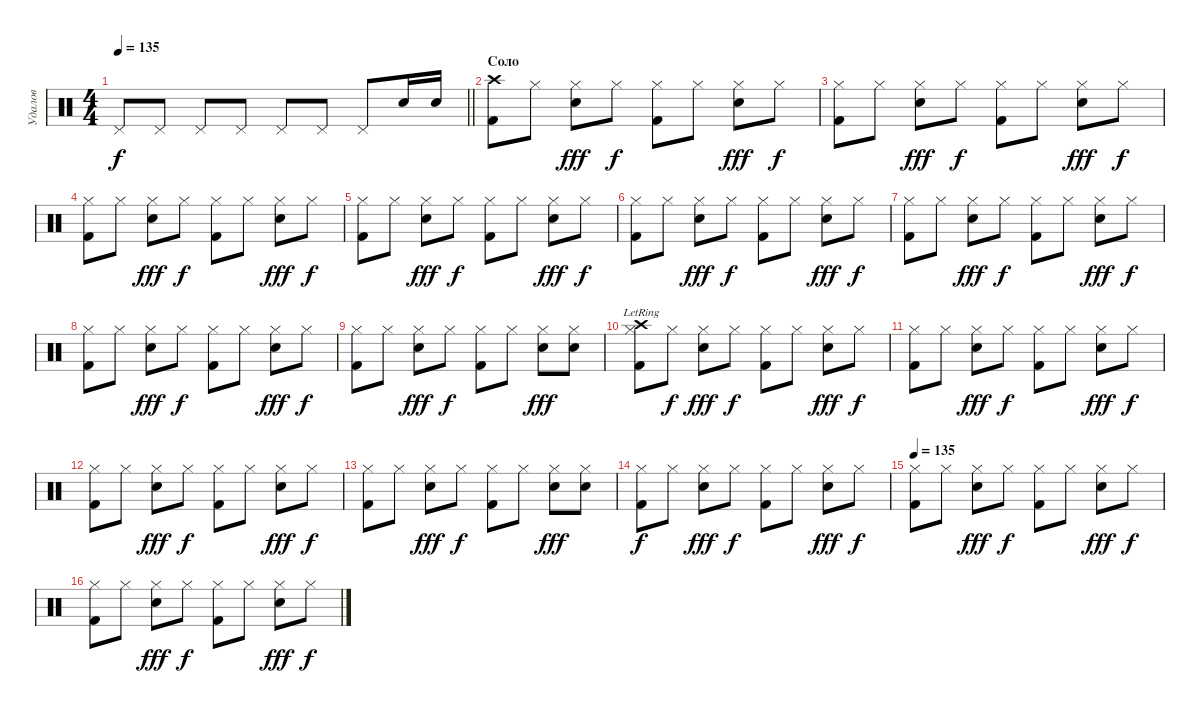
\track ("Удалов" "Удалов") {instrument percussion}
\staff {score}
\articulation defaults
\ts (4 4)
\tempo 135
\clef neutral
\barLineRight lightlight
\ks c "Pedal Hi-Hat (hit)".8{dy f} "Pedal Hi-Hat (hit)".8 "Pedal Hi-Hat (hit)".8 "Pedal Hi-Hat (hit)".8 "Pedal Hi-Hat (hit)".8 "Pedal Hi-Hat (hit)".8 "Pedal Hi-Hat (hit)".8 "Snare (hit) 2".16 "Snare (hit) 2".16
|
\section ("" "Соло")
("Crash high (hit)" "Kick (hit) 2").8 "Hi-Hat (closed)".8 ("Hi-Hat (closed)" "Snare (hit) 2").8{dy fff} "Hi-Hat (closed)".8{dy f} ("Hi-Hat (closed)" "Kick (hit) 2").8 "Hi-Hat (closed)".8 ("Hi-Hat (closed)" "Snare (hit) 2").8{dy fff} "Hi-Hat (closed)".8{dy f} |
("Hi-Hat (closed)" "Kick (hit) 2").8 "Hi-Hat (closed)".8 ("Hi-Hat (closed)" "Snare (hit) 2").8{dy fff} "Hi-Hat (closed)".8{dy f} ("Hi-Hat (closed)" "Kick (hit) 2").8 "Hi-Hat (closed)".8 ("Hi-Hat (closed)" "Snare (hit) 2").8{dy fff} "Hi-Hat (closed)".8{dy f} |
("Hi-Hat (closed)" "Kick (hit) 2").8 "Hi-Hat (closed)".8 ("Hi-Hat (closed)" "Snare (hit) 2").8{dy fff} "Hi-Hat (closed)".8{dy f} ("Hi-Hat (closed)" "Kick (hit) 2").8 "Hi-Hat (closed)".8 ("Hi-Hat (closed)" "Snare (hit) 2").8{dy fff} "Hi-Hat (closed)".8{dy f} |
("Hi-Hat (closed)" "Kick (hit) 2").8 "Hi-Hat (closed)".8 ("Hi-Hat (closed)" "Snare (hit) 2").8{dy fff} "Hi-Hat (closed)".8{dy f} ("Hi-Hat (closed)" "Kick (hit) 2").8 "Hi-Hat (closed)".8 ("Hi-Hat (closed)" "Snare (hit) 2").8{dy fff} "Hi-Hat (closed)".8{dy f} |
("Hi-Hat (closed)" "Kick (hit) 2").8 "Hi-Hat (closed)".8 ("Hi-Hat (closed)" "Snare (hit) 2").8{dy fff} "Hi-Hat (closed)".8{dy f} ("Hi-Hat (closed)" "Kick (hit) 2").8 "Hi-Hat (closed)".8 ("Hi-Hat (closed)" "Snare (hit) 2").8{dy fff} "Hi-Hat (closed)".8{dy f} |
("Hi-Hat (closed)" "Kick (hit) 2").8 "Hi-Hat (closed)".8 ("Hi-Hat (closed)" "Snare (hit) 2").8{dy fff} "Hi-Hat (closed)".8{dy f} ("Hi-Hat (closed)" "Kick (hit) 2").8 "Hi-Hat (closed)".8 ("Hi-Hat (closed)" "Snare (hit) 2").8{dy fff} "Hi-Hat (closed)".8{dy f} |
("Hi-Hat (closed)" "Kick (hit) 2").8 "Hi-Hat (closed)".8 ("Hi-Hat (closed)" "Snare (hit) 2").8{dy fff} "Hi-Hat (closed)".8{dy f} ("Hi-Hat (closed)" "Kick (hit) 2").8 "Hi-Hat (closed)".8 ("Hi-Hat (closed)" "Snare (hit) 2").8{dy fff} "Hi-Hat (closed)".8{dy f} |
("Hi-Hat (closed)" "Kick (hit) 2").8 "Hi-Hat (closed)".8 ("Hi-Hat (closed)" "Snare (hit) 2").8{dy fff} "Hi-Hat (closed)".8{dy f} ("Hi-Hat (closed)" "Kick (hit) 2").8 "Hi-Hat (closed)".8 ("Hi-Hat (closed)" "Snare (hit) 2").8{dy fff} ("Hi-Hat (closed)" "Snare (hit) 2").8 |
("Hi-Hat (closed)" "Kick (hit) 2" "Crash high (hit)"{lr}).8 "Hi-Hat (closed)".8{dy f} ("Hi-Hat (closed)" "Snare (hit) 2").8{dy fff} "Hi-Hat (closed)".8{dy f} ("Hi-Hat (closed)" "Kick (hit) 2").8 "Hi-Hat (closed)".8 ("Hi-Hat (closed)" "Snare (hit) 2").8{dy fff} "Hi-Hat (closed)".8{dy f} |
("Hi-Hat (closed)" "Kick (hit) 2").8 "Hi-Hat (closed)".8 ("Hi-Hat (closed)" "Snare (hit) 2").8{dy fff} "Hi-Hat (closed)".8{dy f} ("Hi-Hat (closed)" "Kick (hit) 2").8 "Hi-Hat (closed)".8 ("Hi-Hat (closed)" "Snare (hit) 2").8{dy fff} "Hi-Hat (closed)".8{dy f} |
("Hi-Hat (closed)" "Kick (hit) 2").8 "Hi-Hat (closed)".8 ("Hi-Hat (closed)" "Snare (hit) 2").8{dy fff} "Hi-Hat (closed)".8{dy f} ("Hi-Hat (closed)" "Kick (hit) 2").8 "Hi-Hat (closed)".8 ("Hi-Hat (closed)" "Snare (hit) 2").8{dy fff} "Hi-Hat (closed)".8{dy f} |
("Hi-Hat (closed)" "Kick (hit) 2").8 "Hi-Hat (closed)".8 ("Hi-Hat (closed)" "Snare (hit) 2").8{dy fff} "Hi-Hat (closed)".8{dy f} ("Hi-Hat (closed)" "Kick (hit) 2").8 "Hi-Hat (closed)".8 ("Hi-Hat (closed)" "Snare (hit) 2").8{dy fff} ("Hi-Hat (closed)" "Snare (hit) 2").8 |
("Hi-Hat (closed)" "Kick (hit) 2").8{dy f} "Hi-Hat (closed)".8 ("Hi-Hat (closed)" "Snare (hit) 2").8{dy fff} "Hi-Hat (closed)".8{dy f} ("Hi-Hat (closed)" "Kick (hit) 2").8 "Hi-Hat (closed)".8 ("Hi-Hat (closed)" "Snare (hit) 2").8{dy fff} "Hi-Hat (closed)".8{dy f} |
\tempo 135
("Hi-Hat (closed)" "Kick (hit) 2").8 "Hi-Hat (closed)".8 ("Hi-Hat (closed)" "Snare (hit) 2").8{dy fff} "Hi-Hat (closed)".8{dy f} ("Hi-Hat (closed)" "Kick (hit) 2").8 "Hi-Hat (closed)".8 ("Hi-Hat (closed)" "Snare (hit) 2").8{dy fff} "Hi-Hat (closed)".8{dy f} |
("Hi-Hat (closed)" "Kick (hit) 2").8 "Hi-Hat (closed)".8 ("Hi-Hat (closed)" "Snare (hit) 2").8{dy fff} "Hi-Hat (closed)".8{dy f} ("Hi-Hat (closed)" "Kick (hit) 2").8 "Hi-Hat (closed)".8 ("Hi-Hat (closed)" "Snare (hit) 2").8{dy fff} "Hi-Hat (closed)".8{dy f}
